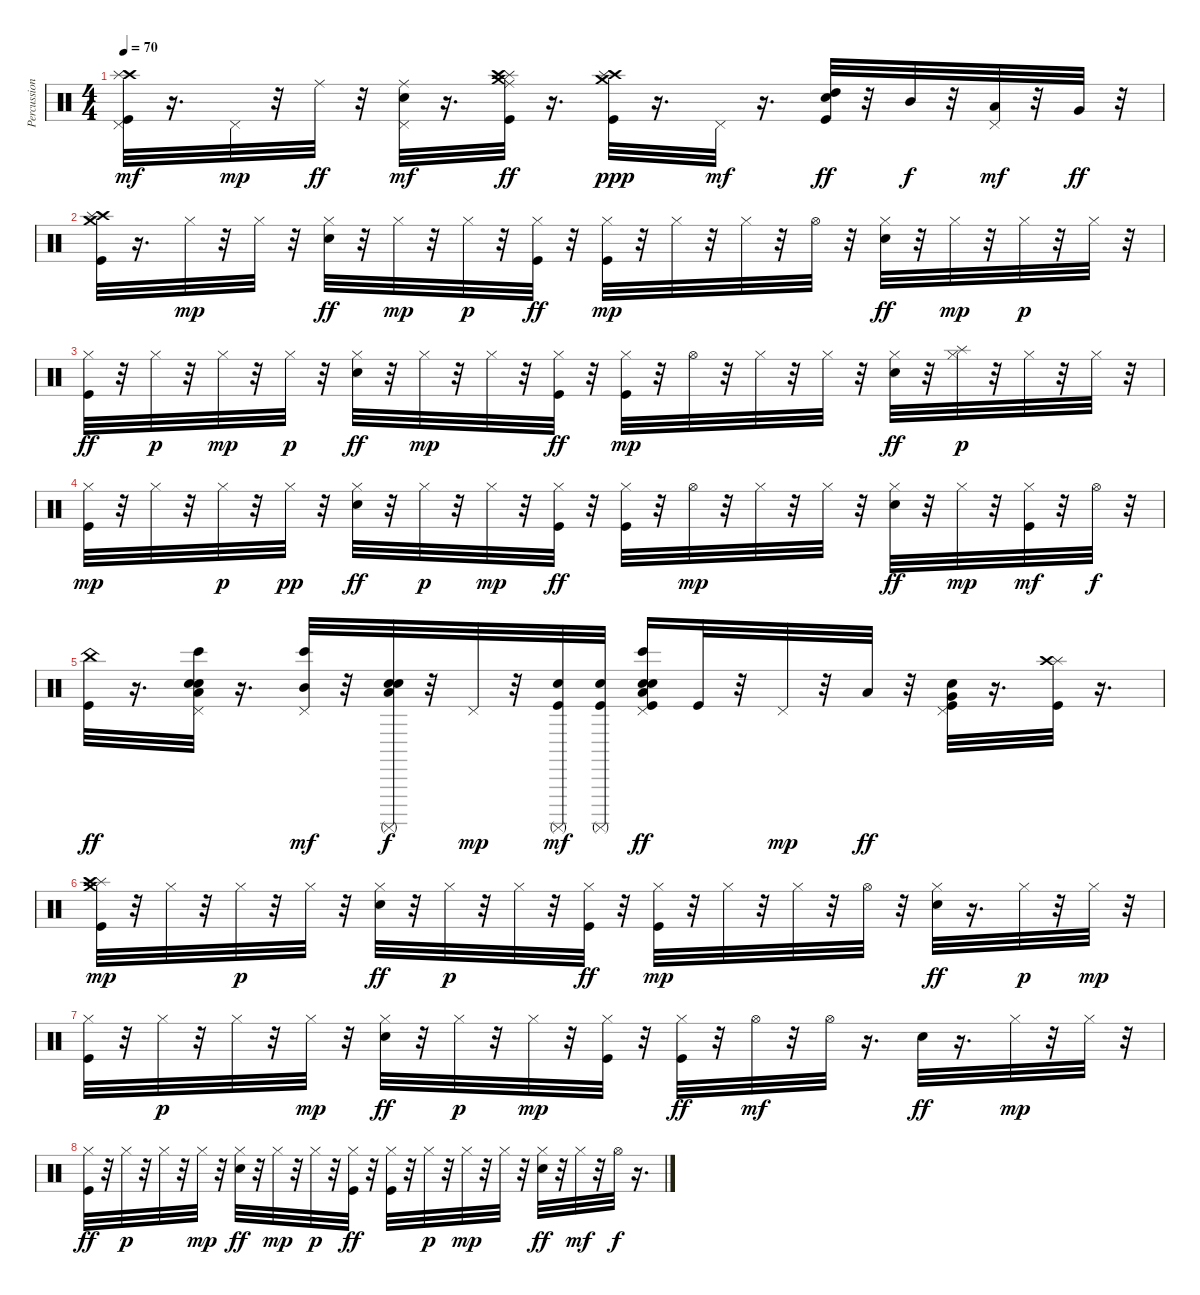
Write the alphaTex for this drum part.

\track ("Percussion" "Percussion") {instrument percussion}
\staff {score}
\articulation defaults
\ts (4 4)
\tempo 70
\clef neutral
\ks c
("Pedal Hi-Hat (hit)" "Kick (hit)" "Crash high (hit)" "Splash (hit)").32{dy mf} r.16{d} "Pedal Hi-Hat (hit)".32{dy mp} r.32 "Ride (middle)".32{dy ff} r.32 ("Snare (hit) 2" "Ride (middle)" "Pedal Hi-Hat (hit)").32{dy mf} r.16{d} ("Splash (hit)" "Crash high (hit)" "Crash medium (hit)" "Kick (hit)" "Ride (middle)").32{dy ff} r.16{d} ("Crash medium (hit)" "Kick (hit)" "Crash high (hit)" "Splash (hit)").32{dy ppp} r.16{d} "Pedal Hi-Hat (hit)".32{dy mf} r.16{d} ("Kick (hit)" "Snare (hit) 2" "High Tom (hit)").32{dy ff} r.32 "Mid Tom (hit)".32{dy f} r.32 ("Pedal Hi-Hat (hit)" "Low Tom (hit)").32{dy mf} r.32 "Very Low Tom (hit)".32{dy ff} r.32 |
("Crash high (hit)" "Splash (hit)" "Crash medium (hit)" "Kick (hit)").32 r.16{d} "Hi-Hat (closed)".32{dy mp} r.32 "Hi-Hat (closed)".32 r.32 ("Hi-Hat (closed)" "Snare (hit) 2").32{dy ff} r.32 "Hi-Hat (closed)".32{dy mp} r.32 "Hi-Hat (closed)".32{dy p} r.32 ("Hi-Hat (closed)" "Kick (hit)").32{dy ff} r.32 ("Hi-Hat (closed)" "Kick (hit)").32{dy mp} r.32 "Hi-Hat (closed)".32 r.32 "Hi-Hat (closed)".32 r.32 "Hi-Hat (open)".32 r.32 ("Hi-Hat (closed)" "Snare (hit) 2").32{dy ff} r.32 "Hi-Hat (closed)".32{dy mp} r.32 "Hi-Hat (closed)".32{dy p} r.32 "Hi-Hat (closed)".32 r.32 |
("Hi-Hat (closed)" "Kick (hit)").32{dy ff} r.32 "Hi-Hat (closed)".32{dy p} r.32 "Hi-Hat (closed)".32{dy mp} r.32 "Hi-Hat (closed)".32{dy p} r.32 ("Hi-Hat (closed)" "Snare (hit) 2").32{dy ff} r.32 "Hi-Hat (closed)".32{dy mp} r.32 "Hi-Hat (closed)".32 r.32 ("Hi-Hat (closed)" "Kick (hit)").32{dy ff} r.32 ("Hi-Hat (closed)" "Kick (hit)").32{dy mp} r.32 "Hi-Hat (open)".32 r.32 "Hi-Hat (closed)".32 r.32 "Hi-Hat (closed)".32 r.32 ("Hi-Hat (closed)" "Snare (hit) 2").32{dy ff} r.32 ("Splash (hit)" "Hi-Hat (closed)").32{dy p} r.32 "Hi-Hat (closed)".32 r.32 "Hi-Hat (closed)".32 r.32 |
("Hi-Hat (closed)" "Kick (hit)").32{dy mp} r.32 "Hi-Hat (closed)".32 r.32 "Hi-Hat (closed)".32{dy p} r.32 "Hi-Hat (closed)".32{dy pp} r.32 ("Hi-Hat (closed)" "Snare (hit) 2").32{dy ff} r.32 "Hi-Hat (closed)".32{dy p} r.32 "Hi-Hat (closed)".32{dy mp} r.32 ("Hi-Hat (closed)" "Kick (hit)").32{dy ff} r.32 ("Hi-Hat (closed)" "Kick (hit)").32 r.32 "Hi-Hat (open)".32{dy mp} r.32 "Hi-Hat (closed)".32 r.32 "Hi-Hat (closed)".32 r.32 ("Hi-Hat (closed)" "Snare (hit) 2").32{dy ff} r.32 "Hi-Hat (closed)".32{dy mp} r.32 ("Hi-Hat (closed)" "Kick (hit)").32{dy mf} r.32 "Hi-Hat (open)".32{dy f} r.32 |
("Kick (hit)" "China (hit)").32{dy ff} r.16{d} ("Pedal Hi-Hat (hit)" "Low Tom (hit)" "Snare (hit) 2" "Bongo High (hit)" "Hand Clap (hit)").32 r.16{d} ("Pedal Hi-Hat (hit)" "Bongo High (hit)" "Mid Tom (hit)").32{dy mf} r.32 ("Low Tom (hit)" "Snare (hit) 2" "Surdo (mute)" "Hand Clap (hit)").32{dy f} r.32 "Pedal Hi-Hat (hit)".32{dy mp} r.32 ("Kick (hit)" "Electric Snare (hit)" "Surdo (mute)").32{dy mf} ("Kick (hit)" "Electric Snare (hit)" "Surdo (mute)").32 ("Pedal Hi-Hat (hit)" "Kick (hit)" "Low Tom (hit)" "Hand Clap (hit)" "Bongo High (hit)" "Snare (hit) 2").16{dy ff} "Kick (hit)".32 r.32 "Pedal Hi-Hat (hit)".32{dy mp} r.32 "Low Tom (hit)".32{dy ff} r.32 ("Pedal Hi-Hat (hit)" "Kick (hit)" "Very Low Tom (hit)" "Snare (hit) 2").32 r.16{d} ("Splash (hit)" "Crash high (hit)" "Kick (hit)").32 r.16{d} |
("Splash (hit)" "Kick (hit)" "Crash high (hit)" "Crash medium (hit)").32{dy mp} r.32 "Hi-Hat (closed)".32 r.32 "Hi-Hat (closed)".32{dy p} r.32 "Hi-Hat (closed)".32 r.32 ("Hi-Hat (closed)" "Snare (hit) 2").32{dy ff} r.32 "Hi-Hat (closed)".32{dy p} r.32 "Hi-Hat (closed)".32 r.32 ("Hi-Hat (closed)" "Kick (hit)").32{dy ff} r.32 ("Kick (hit)" "Hi-Hat (closed)").32{dy mp} r.32 "Hi-Hat (closed)".32 r.32 "Hi-Hat (closed)".32 r.32 "Hi-Hat (open)".32 r.32 ("Hi-Hat (closed)" "Snare (hit) 2").32{dy ff} r.16{d} "Hi-Hat (closed)".32{dy p} r.32 "Hi-Hat (closed)".32{dy mp} r.32 |
("Kick (hit)" "Hi-Hat (closed)").32 r.32 "Hi-Hat (closed)".32{dy p} r.32 "Hi-Hat (closed)".32 r.32 "Hi-Hat (closed)".32{dy mp} r.32 ("Hi-Hat (closed)" "Snare (hit) 2").32{dy ff} r.32 "Hi-Hat (closed)".32{dy p} r.32 "Hi-Hat (closed)".32{dy mp} r.32 ("Kick (hit)" "Hi-Hat (closed)").32 r.32 ("Hi-Hat (closed)" "Kick (hit)").32{dy ff} r.32 "Hi-Hat (open)".32{dy mf} r.32 "Hi-Hat (open)".32 r.16{d} "Snare (hit) 2".32{dy ff} r.16{d} "Hi-Hat (closed)".32{dy mp} r.32 "Hi-Hat (closed)".32 r.32 |
("Hi-Hat (closed)" "Kick (hit)").32{dy ff} r.32 "Hi-Hat (closed)".32{dy p} r.32 "Hi-Hat (closed)".32 r.32 "Hi-Hat (closed)".32{dy mp} r.32 ("Hi-Hat (closed)" "Snare (hit) 2").32{dy ff} r.32 "Hi-Hat (closed)".32{dy mp} r.32 "Hi-Hat (closed)".32{dy p} r.32 ("Hi-Hat (closed)" "Kick (hit)").32{dy ff} r.32 ("Hi-Hat (closed)" "Kick (hit)").32 r.32 "Hi-Hat (closed)".32{dy p} r.32 "Hi-Hat (closed)".32{dy mp} r.32 "Hi-Hat (closed)".32 r.32 ("Hi-Hat (closed)" "Snare (hit) 2").32{dy ff} r.32 "Hi-Hat (closed)".32{dy mf} r.32 "Hi-Hat (open)".32{dy f} r.16{d}
